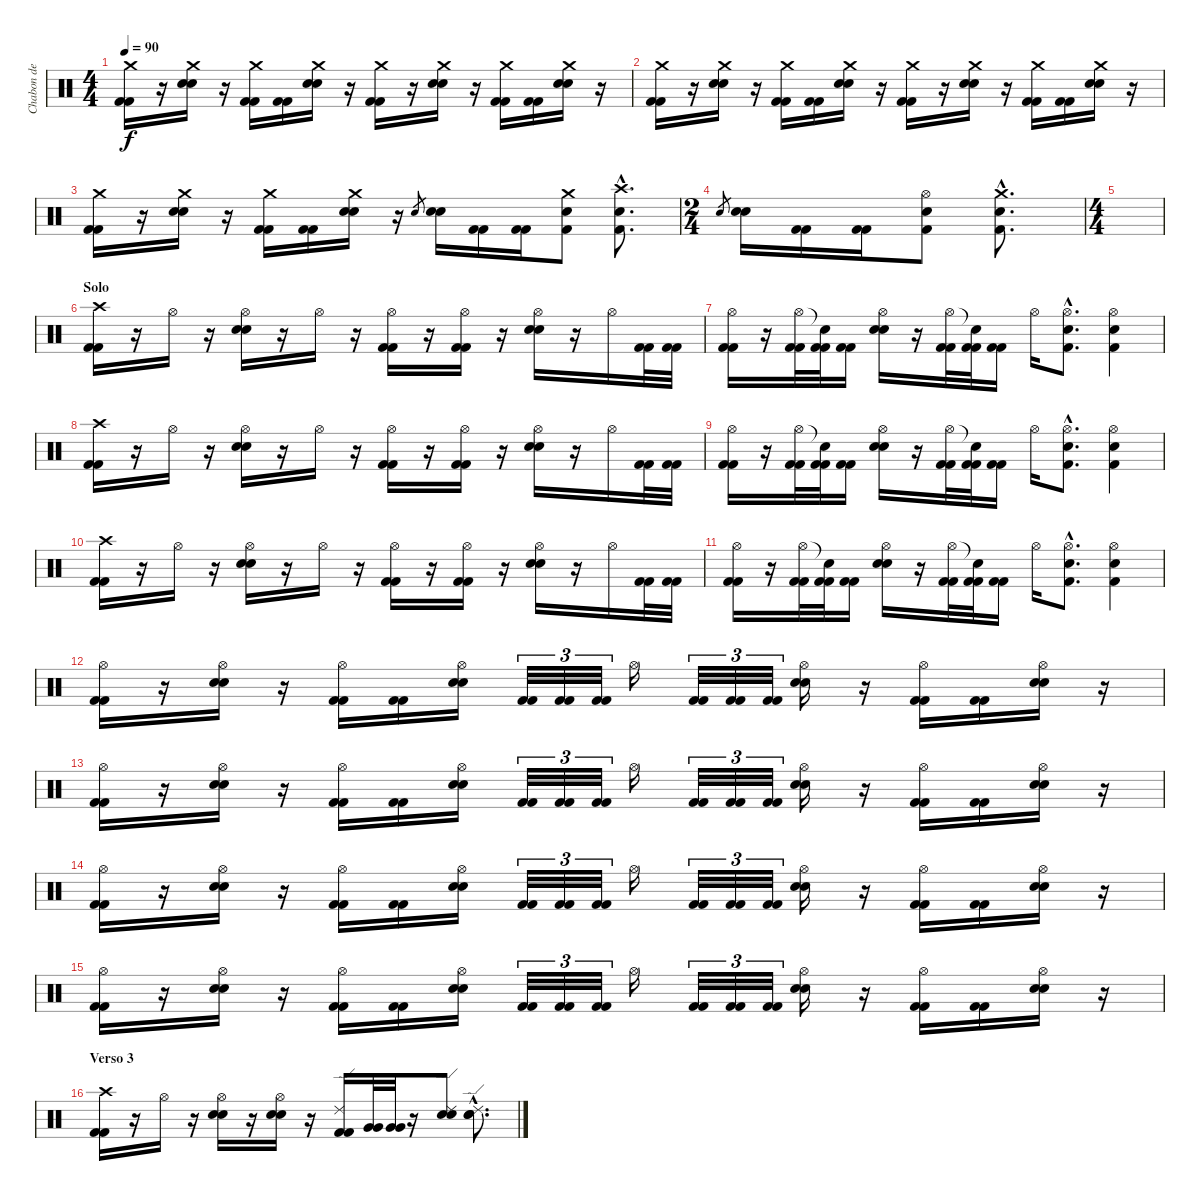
\track ("Chabon de Vorax" "Chabon de ") {instrument percussion}
\staff {score}
\articulation defaults
\ts (4 4)
\tempo 90
\clef neutral
\ks c
("Crash medium (hit)" "Kick (hit) 2" "Kick (hit) 2").16{dy f} r.16 ("Crash medium (hit)" "Snare (hit) 2" "Snare (hit) 2").16 r.16 ("Crash medium (hit)" "Kick (hit) 2" "Kick (hit) 2").16 ("Kick (hit) 2" "Kick (hit) 2").16 ("Crash medium (hit)" "Snare (hit) 2" "Snare (hit) 2").16 r.16 ("Crash medium (hit)" "Kick (hit) 2" "Kick (hit) 2").16 r.16 ("Crash medium (hit)" "Snare (hit) 2" "Snare (hit) 2").16 r.16 ("Crash medium (hit)" "Kick (hit) 2" "Kick (hit) 2").16 ("Kick (hit) 2" "Kick (hit) 2").16 ("Crash medium (hit)" "Snare (hit) 2" "Snare (hit) 2").16 r.16 |
("Crash medium (hit)" "Kick (hit) 2" "Kick (hit) 2").16 r.16 ("Crash medium (hit)" "Snare (hit) 2" "Snare (hit) 2").16 r.16 ("Crash medium (hit)" "Kick (hit) 2" "Kick (hit) 2").16 ("Kick (hit) 2" "Kick (hit) 2").16 ("Crash medium (hit)" "Snare (hit) 2" "Snare (hit) 2").16 r.16 ("Crash medium (hit)" "Kick (hit) 2" "Kick (hit) 2").16 r.16 ("Crash medium (hit)" "Snare (hit) 2" "Snare (hit) 2").16 r.16 ("Crash medium (hit)" "Kick (hit) 2" "Kick (hit) 2").16 ("Kick (hit) 2" "Kick (hit) 2").16 ("Crash medium (hit)" "Snare (hit) 2" "Snare (hit) 2").16 r.16 |
("Crash medium (hit)" "Kick (hit) 2" "Kick (hit) 2").16 r.16 ("Crash medium (hit)" "Snare (hit) 2" "Snare (hit) 2").16 r.16 ("Crash medium (hit)" "Kick (hit) 2" "Kick (hit) 2").16 ("Kick (hit) 2" "Kick (hit) 2").16 ("Crash medium (hit)" "Snare (hit) 2" "Snare (hit) 2").16 r.16 "Snare (hit) 2".8{gr} ("Snare (hit) 2" "Snare (hit) 2").16 ("Kick (hit) 2" "Kick (hit) 2").16 ("Kick (hit) 2" "Kick (hit) 2").16 ("Crash medium (hit)" "Snare (hit) 2" "Kick (hit) 2").8 ("Crash high (hit)"{hac} "Snare (hit) 2"{hac} "Kick (hit) 2"{hac}).8{d} |
\ts (2 4)
"Snare (hit) 2".8{gr} ("Snare (hit) 2" "Snare (hit) 2").16 ("Kick (hit) 2" "Kick (hit) 2").16 ("Kick (hit) 2" "Kick (hit) 2").16 ("Hi-Hat (open)" "Snare (hit) 2" "Kick (hit) 2").8 ("Crash medium (hit)"{hac} "Snare (hit) 2"{hac} "Kick (hit) 2"{hac}).8{d} |
\ts (4 4)
|
\section ("" "Solo")
("Crash high (hit)" "Kick (hit) 2" "Kick (hit) 2").16 r.16 "Hi-Hat (open)".16 r.16 ("Hi-Hat (open)" "Snare (hit) 2" "Snare (hit) 2").16 r.16 "Hi-Hat (open)".16 r.16 ("Hi-Hat (open)" "Kick (hit) 2" "Kick (hit) 2").16 r.16 ("Hi-Hat (open)" "Kick (hit) 2" "Kick (hit) 2").16 r.16 ("Hi-Hat (open)" "Snare (hit) 2" "Snare (hit) 2").16 r.16 "Hi-Hat (open)".16 ("Kick (hit) 2" "Kick (hit) 2").32 ("Kick (hit) 2" "Kick (hit) 2").32 |
("Hi-Hat (open)" "Kick (hit) 2" "Kick (hit) 2").16 r.16 ("Hi-Hat (open)" "Kick (hit) 2" "Kick (hit) 2").32 ("Snare (hit)"{t} "Kick (hit) 2" "Kick (hit) 2").32 ("Kick (hit) 2" "Kick (hit) 2").16 ("Hi-Hat (open)" "Snare (hit) 2" "Snare (hit) 2").16 r.16 ("Hi-Hat (open)" "Kick (hit) 2" "Kick (hit) 2").32 ("Snare (hit)"{t} "Kick (hit) 2" "Kick (hit) 2").32 ("Kick (hit) 2" "Kick (hit) 2").16 "Hi-Hat (open)".16 ("Hi-Hat (open)"{hac} "Snare (hit) 2"{hac} "Kick (hit) 2"{hac}).8{d} ("Hi-Hat (open)" "Snare (hit) 2" "Kick (hit) 2").4 |
("Crash high (hit)" "Kick (hit) 2" "Kick (hit) 2").16 r.16 "Hi-Hat (open)".16 r.16 ("Hi-Hat (open)" "Snare (hit) 2" "Snare (hit) 2").16 r.16 "Hi-Hat (open)".16 r.16 ("Hi-Hat (open)" "Kick (hit) 2" "Kick (hit) 2").16 r.16 ("Hi-Hat (open)" "Kick (hit) 2" "Kick (hit) 2").16 r.16 ("Hi-Hat (open)" "Snare (hit) 2" "Snare (hit) 2").16 r.16 "Hi-Hat (open)".16 ("Kick (hit) 2" "Kick (hit) 2").32 ("Kick (hit) 2" "Kick (hit) 2").32 |
("Hi-Hat (open)" "Kick (hit) 2" "Kick (hit) 2").16 r.16 ("Hi-Hat (open)" "Kick (hit) 2" "Kick (hit) 2").32 ("Snare (hit)"{t} "Kick (hit) 2" "Kick (hit) 2").32 ("Kick (hit) 2" "Kick (hit) 2").16 ("Hi-Hat (open)" "Snare (hit) 2" "Snare (hit) 2").16 r.16 ("Hi-Hat (open)" "Kick (hit) 2" "Kick (hit) 2").32 ("Snare (hit)"{t} "Kick (hit) 2" "Kick (hit) 2").32 ("Kick (hit) 2" "Kick (hit) 2").16 "Hi-Hat (open)".16 ("Hi-Hat (open)"{hac} "Snare (hit) 2"{hac} "Kick (hit) 2"{hac}).8{d} ("Hi-Hat (open)" "Snare (hit) 2" "Kick (hit) 2").4 |
("Crash high (hit)" "Kick (hit) 2" "Kick (hit) 2").16 r.16 "Hi-Hat (open)".16 r.16 ("Hi-Hat (open)" "Snare (hit) 2" "Snare (hit) 2").16 r.16 "Hi-Hat (open)".16 r.16 ("Hi-Hat (open)" "Kick (hit) 2" "Kick (hit) 2").16 r.16 ("Hi-Hat (open)" "Kick (hit) 2" "Kick (hit) 2").16 r.16 ("Hi-Hat (open)" "Snare (hit) 2" "Snare (hit) 2").16 r.16 "Hi-Hat (open)".16 ("Kick (hit) 2" "Kick (hit) 2").32 ("Kick (hit) 2" "Kick (hit) 2").32 |
("Hi-Hat (open)" "Kick (hit) 2" "Kick (hit) 2").16 r.16 ("Hi-Hat (open)" "Kick (hit) 2" "Kick (hit) 2").32 ("Snare (hit)"{t} "Kick (hit) 2" "Kick (hit) 2").32 ("Kick (hit) 2" "Kick (hit) 2").16 ("Hi-Hat (open)" "Snare (hit) 2" "Snare (hit) 2").16 r.16 ("Hi-Hat (open)" "Kick (hit) 2" "Kick (hit) 2").32 ("Snare (hit)"{t} "Kick (hit) 2" "Kick (hit) 2").32 ("Kick (hit) 2" "Kick (hit) 2").16 "Hi-Hat (open)".16 ("Hi-Hat (open)"{hac} "Snare (hit) 2"{hac} "Kick (hit) 2"{hac}).8{d} ("Hi-Hat (open)" "Snare (hit) 2" "Kick (hit) 2").4 |
("Hi-Hat (open)" "Kick (hit) 2" "Kick (hit) 2").16 r.16 ("Hi-Hat (open)" "Snare (hit) 2" "Snare (hit) 2").16 r.16 ("Hi-Hat (open)" "Kick (hit) 2" "Kick (hit) 2").16 ("Kick (hit) 2" "Kick (hit) 2").16 ("Hi-Hat (open)" "Snare (hit) 2" "Snare (hit) 2").16 ("Kick (hit) 2" "Kick (hit) 2").32{tu (3 2)} ("Kick (hit) 2" "Kick (hit) 2").32{tu (3 2)} ("Kick (hit) 2" "Kick (hit) 2").32{tu (3 2)} "Hi-Hat (open)".16 ("Kick (hit) 2" "Kick (hit) 2").32{tu (3 2)} ("Kick (hit) 2" "Kick (hit) 2").32{tu (3 2)} ("Kick (hit) 2" "Kick (hit) 2").32{tu (3 2)} ("Hi-Hat (open)" "Snare (hit) 2" "Snare (hit) 2").16 r.16 ("Hi-Hat (open)" "Kick (hit) 2" "Kick (hit) 2").16 ("Kick (hit) 2" "Kick (hit) 2").16 ("Hi-Hat (open)" "Snare (hit) 2" "Snare (hit) 2").16 r.16 |
("Hi-Hat (open)" "Kick (hit) 2" "Kick (hit) 2").16 r.16 ("Hi-Hat (open)" "Snare (hit) 2" "Snare (hit) 2").16 r.16 ("Hi-Hat (open)" "Kick (hit) 2" "Kick (hit) 2").16 ("Kick (hit) 2" "Kick (hit) 2").16 ("Hi-Hat (open)" "Snare (hit) 2" "Snare (hit) 2").16 ("Kick (hit) 2" "Kick (hit) 2").32{tu (3 2)} ("Kick (hit) 2" "Kick (hit) 2").32{tu (3 2)} ("Kick (hit) 2" "Kick (hit) 2").32{tu (3 2)} "Hi-Hat (open)".16 ("Kick (hit) 2" "Kick (hit) 2").32{tu (3 2)} ("Kick (hit) 2" "Kick (hit) 2").32{tu (3 2)} ("Kick (hit) 2" "Kick (hit) 2").32{tu (3 2)} ("Hi-Hat (open)" "Snare (hit) 2" "Snare (hit) 2").16 r.16 ("Hi-Hat (open)" "Kick (hit) 2" "Kick (hit) 2").16 ("Kick (hit) 2" "Kick (hit) 2").16 ("Hi-Hat (open)" "Snare (hit) 2" "Snare (hit) 2").16 r.16 |
("Hi-Hat (open)" "Kick (hit) 2" "Kick (hit) 2").16 r.16 ("Hi-Hat (open)" "Snare (hit) 2" "Snare (hit) 2").16 r.16 ("Hi-Hat (open)" "Kick (hit) 2" "Kick (hit) 2").16 ("Kick (hit) 2" "Kick (hit) 2").16 ("Hi-Hat (open)" "Snare (hit) 2" "Snare (hit) 2").16 ("Kick (hit) 2" "Kick (hit) 2").32{tu (3 2)} ("Kick (hit) 2" "Kick (hit) 2").32{tu (3 2)} ("Kick (hit) 2" "Kick (hit) 2").32{tu (3 2)} "Hi-Hat (open)".16 ("Kick (hit) 2" "Kick (hit) 2").32{tu (3 2)} ("Kick (hit) 2" "Kick (hit) 2").32{tu (3 2)} ("Kick (hit) 2" "Kick (hit) 2").32{tu (3 2)} ("Hi-Hat (open)" "Snare (hit) 2" "Snare (hit) 2").16 r.16 ("Hi-Hat (open)" "Kick (hit) 2" "Kick (hit) 2").16 ("Kick (hit) 2" "Kick (hit) 2").16 ("Hi-Hat (open)" "Snare (hit) 2" "Snare (hit) 2").16 r.16 |
("Hi-Hat (open)" "Kick (hit) 2" "Kick (hit) 2").16 r.16 ("Hi-Hat (open)" "Snare (hit) 2" "Snare (hit) 2").16 r.16 ("Hi-Hat (open)" "Kick (hit) 2" "Kick (hit) 2").16 ("Kick (hit) 2" "Kick (hit) 2").16 ("Hi-Hat (open)" "Snare (hit) 2" "Snare (hit) 2").16 ("Kick (hit) 2" "Kick (hit) 2").32{tu (3 2)} ("Kick (hit) 2" "Kick (hit) 2").32{tu (3 2)} ("Kick (hit) 2" "Kick (hit) 2").32{tu (3 2)} "Hi-Hat (open)".16 ("Kick (hit) 2" "Kick (hit) 2").32{tu (3 2)} ("Kick (hit) 2" "Kick (hit) 2").32{tu (3 2)} ("Kick (hit) 2" "Kick (hit) 2").32{tu (3 2)} ("Hi-Hat (open)" "Snare (hit) 2" "Snare (hit) 2").16 r.16 ("Hi-Hat (open)" "Kick (hit) 2" "Kick (hit) 2").16 ("Kick (hit) 2" "Kick (hit) 2").16 ("Hi-Hat (open)" "Snare (hit) 2" "Snare (hit) 2").16 r.16 |
\section ("" "Verso 3")
("Crash high (hit)" "Kick (hit) 2" "Kick (hit) 2").16 r.16 "Hi-Hat (open)".16 r.16 ("Hi-Hat (open)" "Snare (hit) 2" "Snare (hit) 2").16 r.16 ("Hi-Hat (open)" "Snare (hit) 2" "Snare (hit) 2").16 r.16 ("Ride (edge) 2" "Kick (hit) 2" "Kick (hit) 2").16 ("Very Low Tom (hit)" "Very Low Tom (hit)").32 ("Very Low Tom (hit)" "Very Low Tom (hit)").32 r.16 ("Ride (edge) 2" "Snare (hit) 2" "Snare (hit) 2").8 ("Ride (edge) 2"{hac} "Snare (hit) 2"{hac} "Snare (hit) 2"{hac}).8{d}
